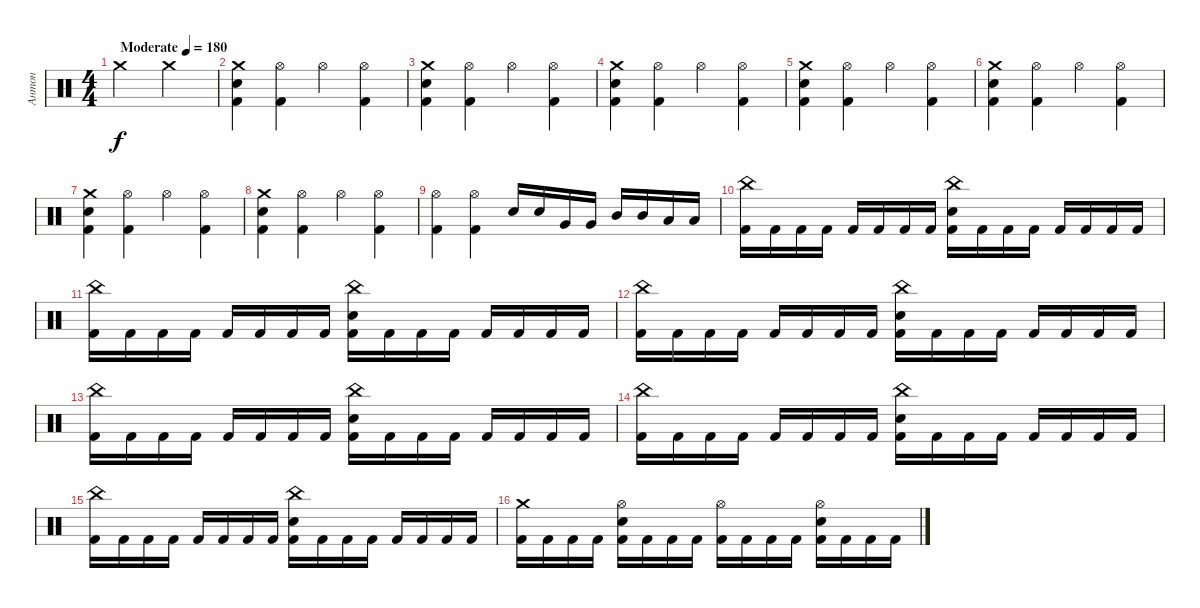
\track ("Антон" "Антон") {instrument percussion}
\staff {score}
\articulation defaults
\ts (4 4)
\tempo (180 "Moderate")
\clef neutral
\ks c "Crash medium (hit)".2{dy f} "Crash medium (hit)".2
|
("Crash medium (hit)" "Electric Snare (hit)" "Kick (hit) 2").4 ("Hi-Hat (open)" "Kick (hit) 2").4 "Hi-Hat (open)".4 ("Hi-Hat (open)" "Kick (hit) 2").4 |
("Crash medium (hit)" "Electric Snare (hit)" "Kick (hit) 2").4 ("Hi-Hat (open)" "Kick (hit) 2").4 "Hi-Hat (open)".4 ("Hi-Hat (open)" "Kick (hit) 2").4 |
("Crash medium (hit)" "Electric Snare (hit)" "Kick (hit) 2").4 ("Hi-Hat (open)" "Kick (hit) 2").4 "Hi-Hat (open)".4 ("Hi-Hat (open)" "Kick (hit) 2").4 |
("Crash medium (hit)" "Electric Snare (hit)" "Kick (hit) 2").4 ("Hi-Hat (open)" "Kick (hit) 2").4 "Hi-Hat (open)".4 ("Hi-Hat (open)" "Kick (hit) 2").4 |
("Crash medium (hit)" "Electric Snare (hit)" "Kick (hit) 2").4 ("Hi-Hat (open)" "Kick (hit) 2").4 "Hi-Hat (open)".4 ("Hi-Hat (open)" "Kick (hit) 2").4 |
("Crash medium (hit)" "Electric Snare (hit)" "Kick (hit) 2").4 ("Hi-Hat (open)" "Kick (hit) 2").4 "Hi-Hat (open)".4 ("Hi-Hat (open)" "Kick (hit) 2").4 |
("Crash medium (hit)" "Electric Snare (hit)" "Kick (hit) 2").4 ("Hi-Hat (open)" "Kick (hit) 2").4 "Hi-Hat (open)".4 ("Hi-Hat (open)" "Kick (hit) 2").4 |
("Hi-Hat (open)" "Kick (hit) 2").4 ("Hi-Hat (open)" "Kick (hit) 2").4 "Electric Snare (hit)".16 "Electric Snare (hit)".16 "Very Low Tom (hit)".16 "Very Low Tom (hit)".16 "Mid Tom (hit)".16 "Mid Tom (hit)".16 "Low Tom (hit)".16 "Low Tom (hit)".16 |
("China (hit)" "Kick (hit) 2").16 "Kick (hit) 2".16 "Kick (hit) 2".16 "Kick (hit) 2".16 "Kick (hit) 2".16 "Kick (hit) 2".16 "Kick (hit) 2".16 "Kick (hit) 2".16 ("China (hit)" "Electric Snare (hit)" "Kick (hit) 2").16 "Kick (hit) 2".16 "Kick (hit) 2".16 "Kick (hit) 2".16 "Kick (hit) 2".16 "Kick (hit) 2".16 "Kick (hit) 2".16 "Kick (hit) 2".16 |
("China (hit)" "Kick (hit) 2").16 "Kick (hit) 2".16 "Kick (hit) 2".16 "Kick (hit) 2".16 "Kick (hit) 2".16 "Kick (hit) 2".16 "Kick (hit) 2".16 "Kick (hit) 2".16 ("China (hit)" "Electric Snare (hit)" "Kick (hit) 2").16 "Kick (hit) 2".16 "Kick (hit) 2".16 "Kick (hit) 2".16 "Kick (hit) 2".16 "Kick (hit) 2".16 "Kick (hit) 2".16 "Kick (hit) 2".16 |
("China (hit)" "Kick (hit) 2").16 "Kick (hit) 2".16 "Kick (hit) 2".16 "Kick (hit) 2".16 "Kick (hit) 2".16 "Kick (hit) 2".16 "Kick (hit) 2".16 "Kick (hit) 2".16 ("China (hit)" "Electric Snare (hit)" "Kick (hit) 2").16 "Kick (hit) 2".16 "Kick (hit) 2".16 "Kick (hit) 2".16 "Kick (hit) 2".16 "Kick (hit) 2".16 "Kick (hit) 2".16 "Kick (hit) 2".16 |
("China (hit)" "Kick (hit) 2").16 "Kick (hit) 2".16 "Kick (hit) 2".16 "Kick (hit) 2".16 "Kick (hit) 2".16 "Kick (hit) 2".16 "Kick (hit) 2".16 "Kick (hit) 2".16 ("China (hit)" "Electric Snare (hit)" "Kick (hit) 2").16 "Kick (hit) 2".16 "Kick (hit) 2".16 "Kick (hit) 2".16 "Kick (hit) 2".16 "Kick (hit) 2".16 "Kick (hit) 2".16 "Kick (hit) 2".16 |
("China (hit)" "Kick (hit) 2").16 "Kick (hit) 2".16 "Kick (hit) 2".16 "Kick (hit) 2".16 "Kick (hit) 2".16 "Kick (hit) 2".16 "Kick (hit) 2".16 "Kick (hit) 2".16 ("China (hit)" "Electric Snare (hit)" "Kick (hit) 2").16 "Kick (hit) 2".16 "Kick (hit) 2".16 "Kick (hit) 2".16 "Kick (hit) 2".16 "Kick (hit) 2".16 "Kick (hit) 2".16 "Kick (hit) 2".16 |
("China (hit)" "Kick (hit) 2").16 "Kick (hit) 2".16 "Kick (hit) 2".16 "Kick (hit) 2".16 "Kick (hit) 2".16 "Kick (hit) 2".16 "Kick (hit) 2".16 "Kick (hit) 2".16 ("China (hit)" "Electric Snare (hit)" "Kick (hit) 2").16 "Kick (hit) 2".16 "Kick (hit) 2".16 "Kick (hit) 2".16 "Kick (hit) 2".16 "Kick (hit) 2".16 "Kick (hit) 2".16 "Kick (hit) 2".16 |
("Crash medium (hit)" "Kick (hit) 2").16 "Kick (hit) 2".16 "Kick (hit) 2".16 "Kick (hit) 2".16 ("Hi-Hat (open)" "Electric Snare (hit)" "Kick (hit) 2").16 "Kick (hit) 2".16 "Kick (hit) 2".16 "Kick (hit) 2".16 ("Hi-Hat (open)" "Kick (hit) 2").16 "Kick (hit) 2".16 "Kick (hit) 2".16 "Kick (hit) 2".16 ("Hi-Hat (open)" "Electric Snare (hit)" "Kick (hit) 2").16 "Kick (hit) 2".16 "Kick (hit) 2".16 "Kick (hit) 2".16
